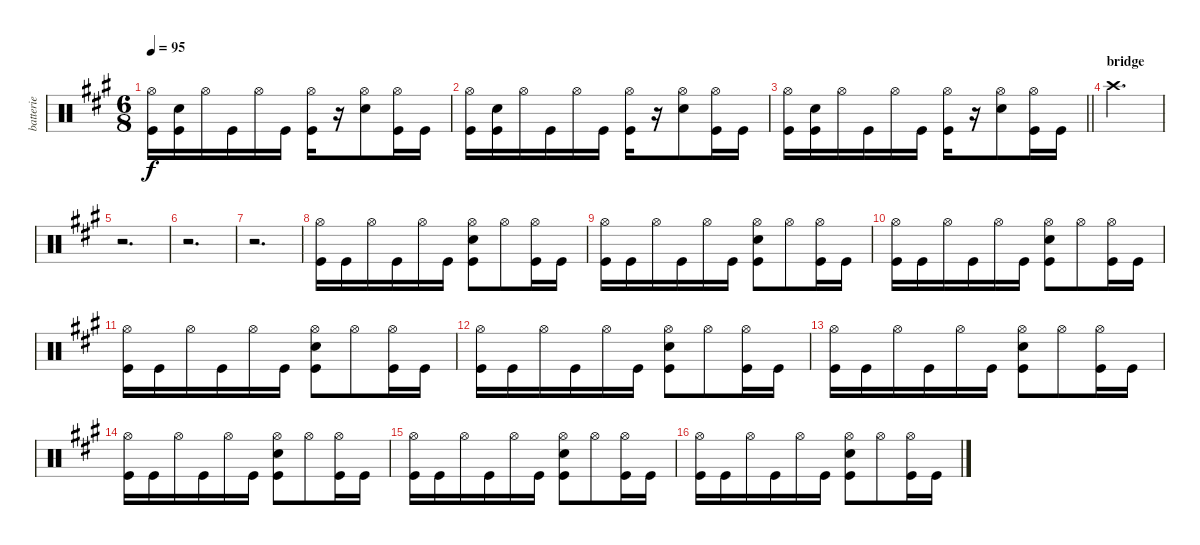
\track ("batterie" "batterie") {instrument percussion}
\staff {score}
\articulation defaults
\ts (6 8)
\tempo 95
\clef neutral
\ks a
("Hi-Hat (open)" "Kick (hit)").16{dy f} ("Electric Snare (hit)" "Kick (hit)").16 "Hi-Hat (open)".16 "Kick (hit)".16 "Hi-Hat (open)".16 "Kick (hit)".16 ("Hi-Hat (open)" "Kick (hit)").16 r.16 ("Hi-Hat (open)" "Electric Snare (hit)").8 ("Hi-Hat (open)" "Kick (hit)").16 "Kick (hit)".16 |
("Hi-Hat (open)" "Kick (hit)").16 ("Electric Snare (hit)" "Kick (hit)").16 "Hi-Hat (open)".16 "Kick (hit)".16 "Hi-Hat (open)".16 "Kick (hit)".16 ("Hi-Hat (open)" "Kick (hit)").16 r.16 ("Hi-Hat (open)" "Electric Snare (hit)").8 ("Hi-Hat (open)" "Kick (hit)").16 "Kick (hit)".16 |
\barLineRight lightlight
("Hi-Hat (open)" "Kick (hit)").16 ("Electric Snare (hit)" "Kick (hit)").16 "Hi-Hat (open)".16 "Kick (hit)".16 "Hi-Hat (open)".16 "Kick (hit)".16 ("Hi-Hat (open)" "Kick (hit)").16 r.16 ("Hi-Hat (open)" "Electric Snare (hit)").8 ("Hi-Hat (open)" "Kick (hit)").16 "Kick (hit)".16 |
\section ("" "bridge")
"Crash high (hit)".2{d} |
r.2{d} |
r.2{d} |
r.2{d} |
("Hi-Hat (open)" "Kick (hit)").16 "Kick (hit)".16 "Hi-Hat (open)".16 "Kick (hit)".16 "Hi-Hat (open)".16 "Kick (hit)".16 ("Hi-Hat (open)" "Electric Snare (hit)" "Kick (hit)").8 "Hi-Hat (open)".8 ("Hi-Hat (open)" "Kick (hit)").16 "Kick (hit)".16 |
("Hi-Hat (open)" "Kick (hit)").16 "Kick (hit)".16 "Hi-Hat (open)".16 "Kick (hit)".16 "Hi-Hat (open)".16 "Kick (hit)".16 ("Hi-Hat (open)" "Electric Snare (hit)" "Kick (hit)").8 "Hi-Hat (open)".8 ("Hi-Hat (open)" "Kick (hit)").16 "Kick (hit)".16 |
("Hi-Hat (open)" "Kick (hit)").16 "Kick (hit)".16 "Hi-Hat (open)".16 "Kick (hit)".16 "Hi-Hat (open)".16 "Kick (hit)".16 ("Hi-Hat (open)" "Electric Snare (hit)" "Kick (hit)").8 "Hi-Hat (open)".8 ("Hi-Hat (open)" "Kick (hit)").16 "Kick (hit)".16 |
("Hi-Hat (open)" "Kick (hit)").16 "Kick (hit)".16 "Hi-Hat (open)".16 "Kick (hit)".16 "Hi-Hat (open)".16 "Kick (hit)".16 ("Hi-Hat (open)" "Electric Snare (hit)" "Kick (hit)").8 "Hi-Hat (open)".8 ("Hi-Hat (open)" "Kick (hit)").16 "Kick (hit)".16 |
("Hi-Hat (open)" "Kick (hit)").16 "Kick (hit)".16 "Hi-Hat (open)".16 "Kick (hit)".16 "Hi-Hat (open)".16 "Kick (hit)".16 ("Hi-Hat (open)" "Electric Snare (hit)" "Kick (hit)").8 "Hi-Hat (open)".8 ("Hi-Hat (open)" "Kick (hit)").16 "Kick (hit)".16 |
("Hi-Hat (open)" "Kick (hit)").16 "Kick (hit)".16 "Hi-Hat (open)".16 "Kick (hit)".16 "Hi-Hat (open)".16 "Kick (hit)".16 ("Hi-Hat (open)" "Electric Snare (hit)" "Kick (hit)").8 "Hi-Hat (open)".8 ("Hi-Hat (open)" "Kick (hit)").16 "Kick (hit)".16 |
("Hi-Hat (open)" "Kick (hit)").16 "Kick (hit)".16 "Hi-Hat (open)".16 "Kick (hit)".16 "Hi-Hat (open)".16 "Kick (hit)".16 ("Hi-Hat (open)" "Electric Snare (hit)" "Kick (hit)").8 "Hi-Hat (open)".8 ("Hi-Hat (open)" "Kick (hit)").16 "Kick (hit)".16 |
("Hi-Hat (open)" "Kick (hit)").16 "Kick (hit)".16 "Hi-Hat (open)".16 "Kick (hit)".16 "Hi-Hat (open)".16 "Kick (hit)".16 ("Hi-Hat (open)" "Electric Snare (hit)" "Kick (hit)").8 "Hi-Hat (open)".8 ("Hi-Hat (open)" "Kick (hit)").16 "Kick (hit)".16 |
("Hi-Hat (open)" "Kick (hit)").16 "Kick (hit)".16 "Hi-Hat (open)".16 "Kick (hit)".16 "Hi-Hat (open)".16 "Kick (hit)".16 ("Hi-Hat (open)" "Electric Snare (hit)" "Kick (hit)").8 "Hi-Hat (open)".8 ("Hi-Hat (open)" "Kick (hit)").16 "Kick (hit)".16
